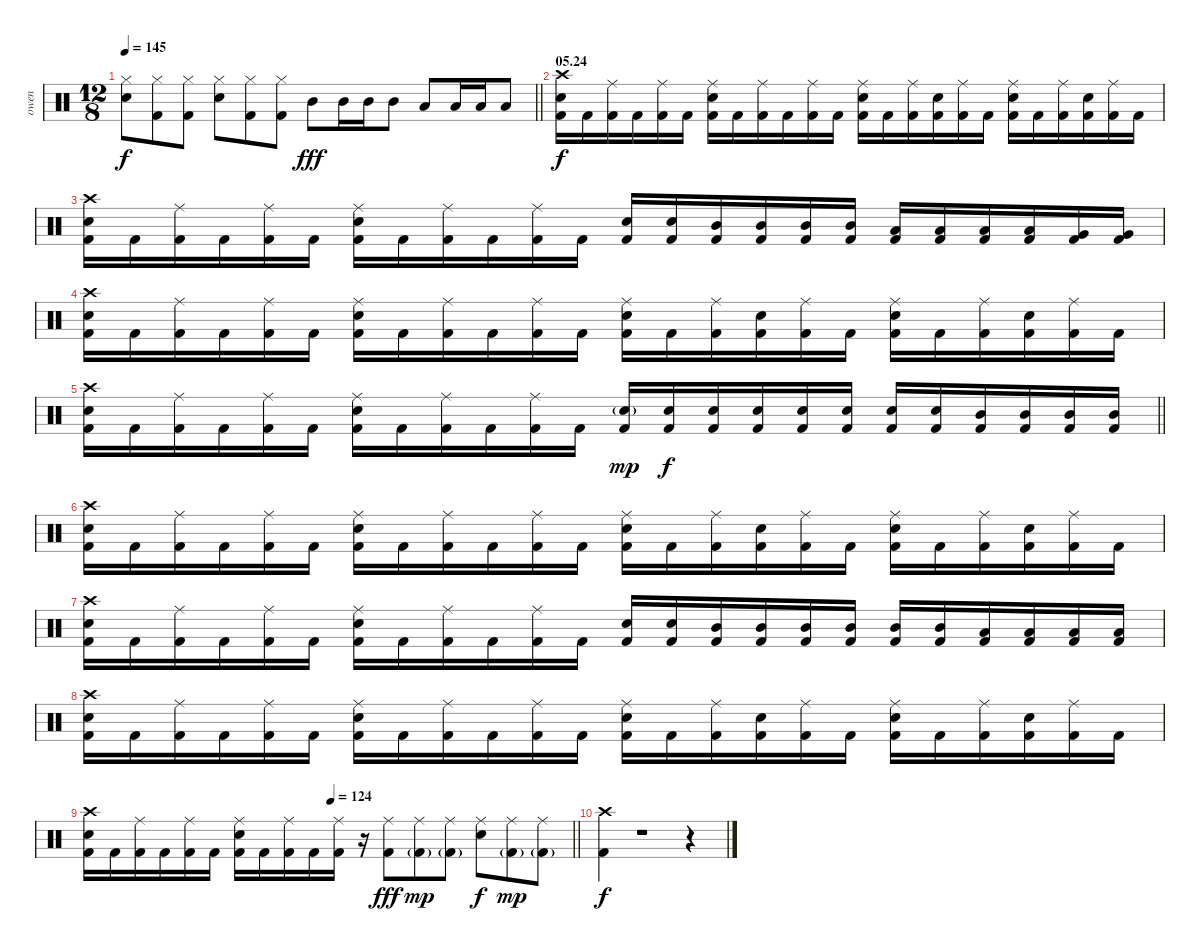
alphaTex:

\track ("owen" "owen") {instrument percussion}
\staff {score}
\articulation defaults
\ts (12 8)
\tempo 145
\clef neutral
\barLineRight lightlight
\ks c
("Hi-Hat (closed)" "Snare (hit) 2").8{dy f} ("Hi-Hat (closed)" "Kick (hit) 2").8 ("Hi-Hat (closed)" "Kick (hit) 2").8 ("Hi-Hat (closed)" "Snare (hit) 2").8 ("Hi-Hat (closed)" "Kick (hit) 2").8 ("Hi-Hat (closed)" "Kick (hit) 2").8 "Mid Tom (hit)".8{dy fff} "Mid Tom (hit)".16 "Mid Tom (hit)".16 "Mid Tom (hit)".8 "Low Tom (hit)".8 "Low Tom (hit)".16 "Low Tom (hit)".16 "Low Tom (hit)".8 |
\section ("" "05.24")
("Crash high (hit)" "Snare (hit) 2" "Kick (hit) 2").16{dy f} "Kick (hit) 2".16 ("Ride (middle)" "Kick (hit) 2").16 "Kick (hit) 2".16 ("Ride (middle)" "Kick (hit) 2").16 "Kick (hit) 2".16 ("Ride (middle)" "Snare (hit) 2" "Kick (hit) 2").16 "Kick (hit) 2".16 ("Ride (middle)" "Kick (hit) 2").16 "Kick (hit) 2".16 ("Ride (middle)" "Kick (hit) 2").16 "Kick (hit) 2".16 ("Ride (middle)" "Snare (hit) 2" "Kick (hit) 2").16 "Kick (hit) 2".16 ("Ride (middle)" "Kick (hit) 2").16 ("Snare (hit) 2" "Kick (hit) 2").16 ("Ride (middle)" "Kick (hit) 2").16 "Kick (hit) 2".16 ("Ride (middle)" "Snare (hit) 2" "Kick (hit) 2").16 "Kick (hit) 2".16 ("Ride (middle)" "Kick (hit) 2").16 ("Snare (hit) 2" "Kick (hit) 2").16 ("Ride (middle)" "Kick (hit) 2").16 "Kick (hit) 2".16 |
("Crash high (hit)" "Snare (hit) 2" "Kick (hit) 2").16 "Kick (hit) 2".16 ("Ride (middle)" "Kick (hit) 2").16 "Kick (hit) 2".16 ("Ride (middle)" "Kick (hit) 2").16 "Kick (hit) 2".16 ("Ride (middle)" "Snare (hit) 2" "Kick (hit) 2").16 "Kick (hit) 2".16 ("Ride (middle)" "Kick (hit) 2").16 "Kick (hit) 2".16 ("Ride (middle)" "Kick (hit) 2").16 "Kick (hit) 2".16 ("Snare (hit) 2" "Kick (hit) 2").16 ("Snare (hit) 2" "Kick (hit) 2").16 ("Mid Tom (hit)" "Kick (hit) 2").16 ("Mid Tom (hit)" "Kick (hit) 2").16 ("Mid Tom (hit)" "Kick (hit) 2").16 ("Mid Tom (hit)" "Kick (hit) 2").16 ("Low Tom (hit)" "Kick (hit) 2").16 ("Low Tom (hit)" "Kick (hit) 2").16 ("Low Tom (hit)" "Kick (hit) 2").16 ("Low Tom (hit)" "Kick (hit) 2").16 ("Very Low Tom (hit)" "Kick (hit) 2").16 ("Very Low Tom (hit)" "Kick (hit) 2").16 |
("Crash high (hit)" "Snare (hit) 2" "Kick (hit) 2").16 "Kick (hit) 2".16 ("Ride (middle)" "Kick (hit) 2").16 "Kick (hit) 2".16 ("Ride (middle)" "Kick (hit) 2").16 "Kick (hit) 2".16 ("Ride (middle)" "Snare (hit) 2" "Kick (hit) 2").16 "Kick (hit) 2".16 ("Ride (middle)" "Kick (hit) 2").16 "Kick (hit) 2".16 ("Ride (middle)" "Kick (hit) 2").16 "Kick (hit) 2".16 ("Ride (middle)" "Snare (hit) 2" "Kick (hit) 2").16 "Kick (hit) 2".16 ("Ride (middle)" "Kick (hit) 2").16 ("Snare (hit) 2" "Kick (hit) 2").16 ("Ride (middle)" "Kick (hit) 2").16 "Kick (hit) 2".16 ("Ride (middle)" "Snare (hit) 2" "Kick (hit) 2").16 "Kick (hit) 2".16 ("Ride (middle)" "Kick (hit) 2").16 ("Snare (hit) 2" "Kick (hit) 2").16 ("Ride (middle)" "Kick (hit) 2").16 "Kick (hit) 2".16 |
\barLineRight lightlight
("Crash high (hit)" "Snare (hit) 2" "Kick (hit) 2").16 "Kick (hit) 2".16 ("Ride (middle)" "Kick (hit) 2").16 "Kick (hit) 2".16 ("Ride (middle)" "Kick (hit) 2").16 "Kick (hit) 2".16 ("Ride (middle)" "Snare (hit) 2" "Kick (hit) 2").16 "Kick (hit) 2".16 ("Ride (middle)" "Kick (hit) 2").16 "Kick (hit) 2".16 ("Ride (middle)" "Kick (hit) 2").16 "Kick (hit) 2".16 ("Snare (hit) 2"{g} "Kick (hit) 2").16{dy mp} ("Snare (hit) 2" "Kick (hit) 2").16{dy f} ("Snare (hit) 2" "Kick (hit) 2").16 ("Snare (hit) 2" "Kick (hit) 2").16 ("Snare (hit) 2" "Kick (hit) 2").16 ("Snare (hit) 2" "Kick (hit) 2").16 ("Snare (hit) 2" "Kick (hit) 2").16 ("Snare (hit) 2" "Kick (hit) 2").16 ("Mid Tom (hit)" "Kick (hit) 2").16 ("Mid Tom (hit)" "Kick (hit) 2").16 ("Mid Tom (hit)" "Kick (hit) 2").16 ("Mid Tom (hit)" "Kick (hit) 2").16 |
("Crash high (hit)" "Snare (hit) 2" "Kick (hit) 2").16 "Kick (hit) 2".16 ("Ride (middle)" "Kick (hit) 2").16 "Kick (hit) 2".16 ("Ride (middle)" "Kick (hit) 2").16 "Kick (hit) 2".16 ("Ride (middle)" "Snare (hit) 2" "Kick (hit) 2").16 "Kick (hit) 2".16 ("Ride (middle)" "Kick (hit) 2").16 "Kick (hit) 2".16 ("Ride (middle)" "Kick (hit) 2").16 "Kick (hit) 2".16 ("Ride (middle)" "Snare (hit) 2" "Kick (hit) 2").16 "Kick (hit) 2".16 ("Ride (middle)" "Kick (hit) 2").16 ("Snare (hit) 2" "Kick (hit) 2").16 ("Ride (middle)" "Kick (hit) 2").16 "Kick (hit) 2".16 ("Ride (middle)" "Snare (hit) 2" "Kick (hit) 2").16 "Kick (hit) 2".16 ("Ride (middle)" "Kick (hit) 2").16 ("Snare (hit) 2" "Kick (hit) 2").16 ("Ride (middle)" "Kick (hit) 2").16 "Kick (hit) 2".16 |
("Crash high (hit)" "Snare (hit) 2" "Kick (hit) 2").16 "Kick (hit) 2".16 ("Ride (middle)" "Kick (hit) 2").16 "Kick (hit) 2".16 ("Ride (middle)" "Kick (hit) 2").16 "Kick (hit) 2".16 ("Ride (middle)" "Snare (hit) 2" "Kick (hit) 2").16 "Kick (hit) 2".16 ("Ride (middle)" "Kick (hit) 2").16 "Kick (hit) 2".16 ("Ride (middle)" "Kick (hit) 2").16 "Kick (hit) 2".16 ("Snare (hit) 2" "Kick (hit) 2").16 ("Snare (hit) 2" "Kick (hit) 2").16 ("Mid Tom (hit)" "Kick (hit) 2").16 ("Mid Tom (hit)" "Kick (hit) 2").16 ("Mid Tom (hit)" "Kick (hit) 2").16 ("Mid Tom (hit)" "Kick (hit) 2").16 ("Mid Tom (hit)" "Kick (hit) 2").16 ("Mid Tom (hit)" "Kick (hit) 2").16 ("Low Tom (hit)" "Kick (hit) 2").16 ("Low Tom (hit)" "Kick (hit) 2").16 ("Low Tom (hit)" "Kick (hit) 2").16 ("Low Tom (hit)" "Kick (hit) 2").16 |
("Crash high (hit)" "Snare (hit) 2" "Kick (hit) 2").16 "Kick (hit) 2".16 ("Ride (middle)" "Kick (hit) 2").16 "Kick (hit) 2".16 ("Ride (middle)" "Kick (hit) 2").16 "Kick (hit) 2".16 ("Ride (middle)" "Snare (hit) 2" "Kick (hit) 2").16 "Kick (hit) 2".16 ("Ride (middle)" "Kick (hit) 2").16 "Kick (hit) 2".16 ("Ride (middle)" "Kick (hit) 2").16 "Kick (hit) 2".16 ("Ride (middle)" "Snare (hit) 2" "Kick (hit) 2").16 "Kick (hit) 2".16 ("Ride (middle)" "Kick (hit) 2").16 ("Snare (hit) 2" "Kick (hit) 2").16 ("Ride (middle)" "Kick (hit) 2").16 "Kick (hit) 2".16 ("Ride (middle)" "Snare (hit) 2" "Kick (hit) 2").16 "Kick (hit) 2".16 ("Ride (middle)" "Kick (hit) 2").16 ("Snare (hit) 2" "Kick (hit) 2").16 ("Ride (middle)" "Kick (hit) 2").16 "Kick (hit) 2".16 |
\tempo (124 0.5)
\barLineRight lightlight
("Crash high (hit)" "Snare (hit) 2" "Kick (hit) 2").16 "Kick (hit) 2".16 ("Ride (middle)" "Kick (hit) 2").16 "Kick (hit) 2".16 ("Ride (middle)" "Kick (hit) 2").16 "Kick (hit) 2".16 ("Ride (middle)" "Snare (hit) 2" "Kick (hit) 2").16 "Kick (hit) 2".16 ("Ride (middle)" "Kick (hit) 2").16 "Kick (hit) 2".16 ("Ride (middle)" "Kick (hit) 2").16 r.16 ("Ride (middle)" "Kick (hit) 2").8{dy fff} ("Ride (middle)" "Kick (hit) 2"{g}).8{dy mp} ("Ride (middle)" "Kick (hit) 2"{g}).8 ("Ride (middle)" "Snare (hit) 2").8{dy f} ("Ride (middle)" "Kick (hit) 2"{g}).8{dy mp} ("Ride (middle)" "Kick (hit) 2"{g}).8 |
("Crash high (hit)" "Kick (hit) 2").4{dy f} r.1 r.4
